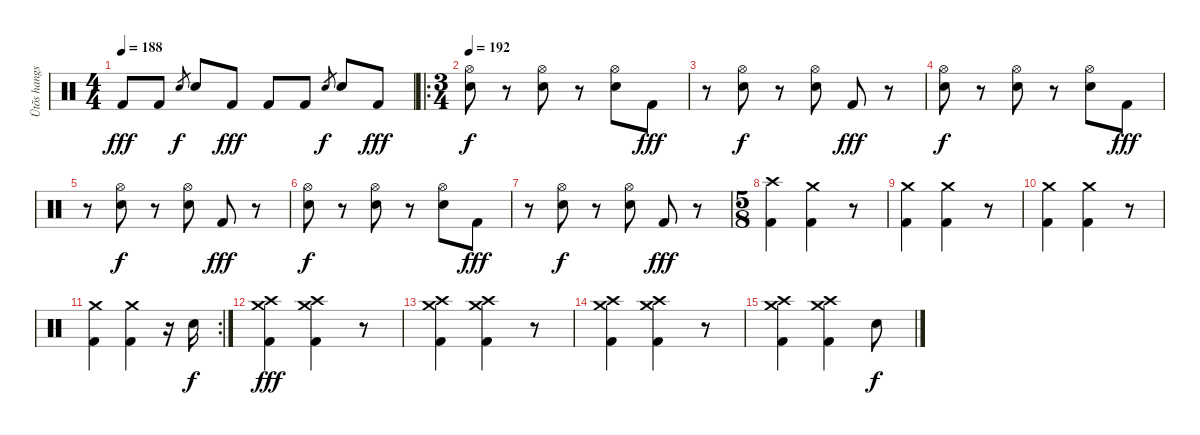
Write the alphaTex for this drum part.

\track ("Ütõs hangszer" "Ütõs hangs") {instrument percussion}
\staff {score}
\articulation defaults
\ts (4 4)
\tempo 188
\clef neutral
\ks c "Kick (hit) 2".8{dy fff} "Kick (hit) 2".8 "Electric Snare (hit)".8{gr dy f} "Electric Snare (hit)".8 "Kick (hit) 2".8{dy fff} "Kick (hit) 2".8 "Kick (hit) 2".8 "Electric Snare (hit)".8{gr dy f} "Electric Snare (hit)".8 "Kick (hit) 2".8{dy fff}
|
\ro
\ts (3 4)
\tempo 192
("Hi-Hat (open)" "Electric Snare (hit)").8{dy f} r.8 ("Hi-Hat (open)" "Electric Snare (hit)").8 r.8 ("Hi-Hat (open)" "Electric Snare (hit)").8 "Kick (hit) 2".8{dy fff} |
r.8 ("Hi-Hat (open)" "Electric Snare (hit)").8{dy f} r.8 ("Hi-Hat (open)" "Electric Snare (hit)").8 "Kick (hit) 2".8{dy fff} r.8 |
("Hi-Hat (open)" "Electric Snare (hit)").8{dy f} r.8 ("Hi-Hat (open)" "Electric Snare (hit)").8 r.8 ("Hi-Hat (open)" "Electric Snare (hit)").8 "Kick (hit) 2".8{dy fff} |
r.8 ("Hi-Hat (open)" "Electric Snare (hit)").8{dy f} r.8 ("Hi-Hat (open)" "Electric Snare (hit)").8 "Kick (hit) 2".8{dy fff} r.8 |
("Hi-Hat (open)" "Electric Snare (hit)").8{dy f} r.8 ("Hi-Hat (open)" "Electric Snare (hit)").8 r.8 ("Hi-Hat (open)" "Electric Snare (hit)").8 "Kick (hit) 2".8{dy fff} |
r.8 ("Hi-Hat (open)" "Electric Snare (hit)").8{dy f} r.8 ("Hi-Hat (open)" "Electric Snare (hit)").8 "Kick (hit) 2".8{dy fff} r.8 |
\ts (5 8)
("Crash high (hit)" "Kick (hit) 2").4 ("Crash medium (hit)" "Kick (hit) 2").4 r.8 |
("Crash medium (hit)" "Kick (hit) 2").4 ("Crash medium (hit)" "Kick (hit) 2").4 r.8 |
("Crash medium (hit)" "Kick (hit) 2").4 ("Crash medium (hit)" "Kick (hit) 2").4 r.8 |
\rc 2
("Crash medium (hit)" "Kick (hit) 2").4 ("Crash medium (hit)" "Kick (hit) 2").4 r.16 "Electric Snare (hit)".16{dy f} |
("Crash high (hit)" "Crash medium (hit)" "Kick (hit) 2").4{dy fff} ("Crash high (hit)" "Crash medium (hit)" "Kick (hit) 2").4 r.8 |
("Crash high (hit)" "Crash medium (hit)" "Kick (hit) 2").4 ("Crash high (hit)" "Crash medium (hit)" "Kick (hit) 2").4 r.8 |
("Crash high (hit)" "Crash medium (hit)" "Kick (hit) 2").4 ("Crash high (hit)" "Crash medium (hit)" "Kick (hit) 2").4 r.8 |
("Crash high (hit)" "Crash medium (hit)" "Kick (hit) 2").4 ("Crash high (hit)" "Crash medium (hit)" "Kick (hit) 2").4 "Electric Snare (hit)".8{dy f}
